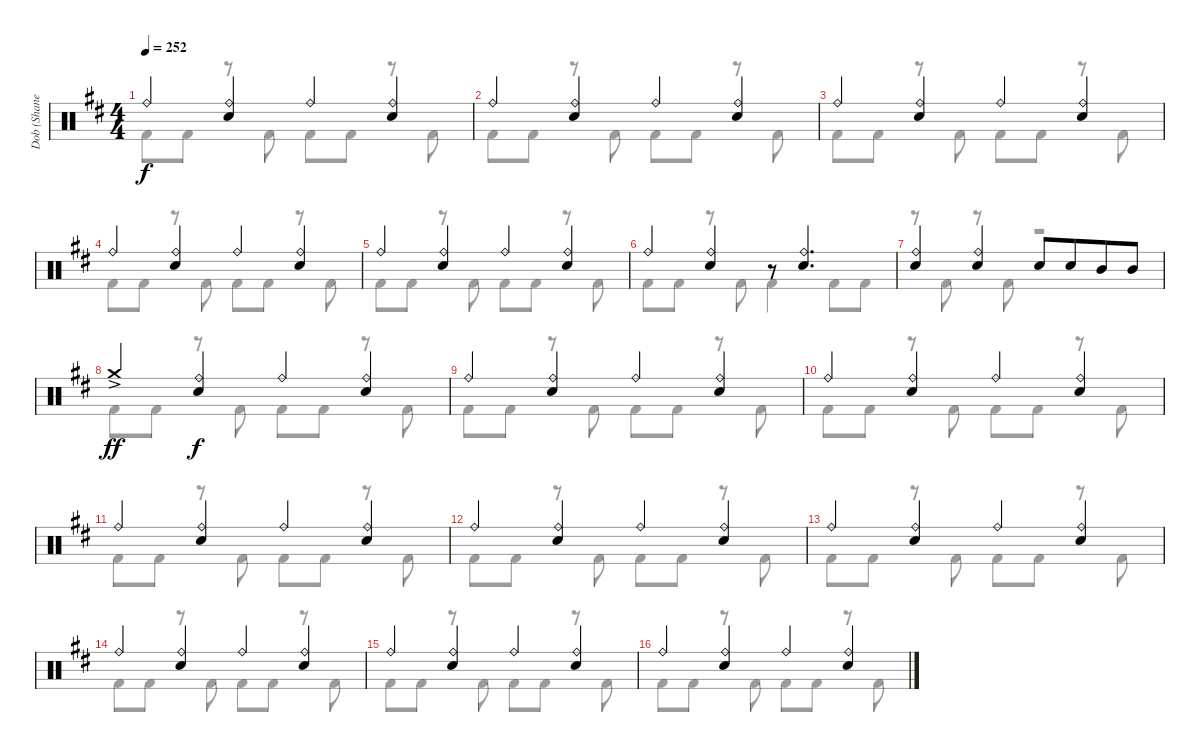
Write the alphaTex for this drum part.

\track ("Dob (Shane Gaalaas)" "Dob (Shane") {instrument percussion}
\staff {score}
\articulation defaults
\voice
\ts (4 4)
\tempo 252
\clef neutral
\ks d "Ride (bell)".4{dy f}
("Ride (bell)" "Electric Snare (hit)").4 "Ride (bell)".4 ("Ride (bell)" "Electric Snare (hit)").4 |
"Ride (bell)".4 ("Ride (bell)" "Electric Snare (hit)").4 "Ride (bell)".4 ("Ride (bell)" "Electric Snare (hit)").4 |
"Ride (bell)".4 ("Ride (bell)" "Electric Snare (hit)").4 "Ride (bell)".4 ("Ride (bell)" "Electric Snare (hit)").4 |
"Ride (bell)".4 ("Ride (bell)" "Electric Snare (hit)").4 "Ride (bell)".4 ("Ride (bell)" "Electric Snare (hit)").4 |
"Ride (bell)".4 ("Ride (bell)" "Electric Snare (hit)").4 "Ride (bell)".4 ("Ride (bell)" "Electric Snare (hit)").4 |
"Ride (bell)".4 ("Ride (bell)" "Electric Snare (hit)").4 r.8 ("Ride (bell)" "Electric Snare (hit)").4{d} |
("Ride (bell)" "Electric Snare (hit)").4 ("Ride (bell)" "Electric Snare (hit)").4 "Electric Snare (hit)".8 "Electric Snare (hit)".8{beam merge} "Mid Tom (hit)".8 "Mid Tom (hit)".8 |
"Crash medium (hit)"{ac}.4{dy ff} ("Ride (bell)" "Electric Snare (hit)").4{dy f} "Ride (bell)".4 ("Ride (bell)" "Electric Snare (hit)").4 |
"Ride (bell)".4 ("Ride (bell)" "Electric Snare (hit)").4 "Ride (bell)".4 ("Ride (bell)" "Electric Snare (hit)").4 |
"Ride (bell)".4 ("Ride (bell)" "Electric Snare (hit)").4 "Ride (bell)".4 ("Ride (bell)" "Electric Snare (hit)").4 |
"Ride (bell)".4 ("Ride (bell)" "Electric Snare (hit)").4 "Ride (bell)".4 ("Ride (bell)" "Electric Snare (hit)").4 |
"Ride (bell)".4 ("Ride (bell)" "Electric Snare (hit)").4 "Ride (bell)".4 ("Ride (bell)" "Electric Snare (hit)").4 |
"Ride (bell)".4 ("Ride (bell)" "Electric Snare (hit)").4 "Ride (bell)".4 ("Ride (bell)" "Electric Snare (hit)").4 |
"Ride (bell)".4 ("Ride (bell)" "Electric Snare (hit)").4 "Ride (bell)".4 ("Ride (bell)" "Electric Snare (hit)").4 |
"Ride (bell)".4 ("Ride (bell)" "Electric Snare (hit)").4 "Ride (bell)".4 ("Ride (bell)" "Electric Snare (hit)").4 |
"Ride (bell)".4 ("Ride (bell)" "Electric Snare (hit)").4 "Ride (bell)".4 ("Ride (bell)" "Electric Snare (hit)").4
\voice
\clef neutral
\ottava regular
\simile none
\ks d "Kick (hit) 2".8{dy f} "Kick (hit) 2".8
r.8 "Kick (hit) 2".8 "Kick (hit) 2".8 "Kick (hit) 2".8 r.8 "Kick (hit) 2".8 |
"Kick (hit) 2".8 "Kick (hit) 2".8 r.8 "Kick (hit) 2".8 "Kick (hit) 2".8 "Kick (hit) 2".8 r.8 "Kick (hit) 2".8 |
"Kick (hit) 2".8 "Kick (hit) 2".8 r.8 "Kick (hit) 2".8 "Kick (hit) 2".8 "Kick (hit) 2".8 r.8 "Kick (hit) 2".8 |
"Kick (hit) 2".8 "Kick (hit) 2".8 r.8 "Kick (hit) 2".8 "Kick (hit) 2".8 "Kick (hit) 2".8 r.8 "Kick (hit) 2".8 |
"Kick (hit) 2".8 "Kick (hit) 2".8 r.8 "Kick (hit) 2".8 "Kick (hit) 2".8 "Kick (hit) 2".8 r.8 "Kick (hit) 2".8 |
"Kick (hit) 2".8 "Kick (hit) 2".8 r.8 "Kick (hit) 2".8 "Kick (hit) 2".4 "Kick (hit) 2".8 "Kick (hit) 2".8 |
r.8 "Kick (hit) 2".8 r.8 "Kick (hit) 2".8 r.2 |
"Kick (hit) 2".8 "Kick (hit) 2".8 r.8 "Kick (hit) 2".8 "Kick (hit) 2".8 "Kick (hit) 2".8 r.8 "Kick (hit) 2".8 |
"Kick (hit) 2".8 "Kick (hit) 2".8 r.8 "Kick (hit) 2".8 "Kick (hit) 2".8 "Kick (hit) 2".8 r.8 "Kick (hit) 2".8 |
"Kick (hit) 2".8 "Kick (hit) 2".8 r.8 "Kick (hit) 2".8 "Kick (hit) 2".8 "Kick (hit) 2".8 r.8 "Kick (hit) 2".8 |
"Kick (hit) 2".8 "Kick (hit) 2".8 r.8 "Kick (hit) 2".8 "Kick (hit) 2".8 "Kick (hit) 2".8 r.8 "Kick (hit) 2".8 |
"Kick (hit) 2".8 "Kick (hit) 2".8 r.8 "Kick (hit) 2".8 "Kick (hit) 2".8 "Kick (hit) 2".8 r.8 "Kick (hit) 2".8 |
"Kick (hit) 2".8 "Kick (hit) 2".8 r.8 "Kick (hit) 2".8 "Kick (hit) 2".8 "Kick (hit) 2".8 r.8 "Kick (hit) 2".8 |
"Kick (hit) 2".8 "Kick (hit) 2".8 r.8 "Kick (hit) 2".8 "Kick (hit) 2".8 "Kick (hit) 2".8 r.8 "Kick (hit) 2".8 |
"Kick (hit) 2".8 "Kick (hit) 2".8 r.8 "Kick (hit) 2".8 "Kick (hit) 2".8 "Kick (hit) 2".8 r.8 "Kick (hit) 2".8 |
"Kick (hit) 2".8 "Kick (hit) 2".8 r.8 "Kick (hit) 2".8 "Kick (hit) 2".8 "Kick (hit) 2".8 r.8 "Kick (hit) 2".8
